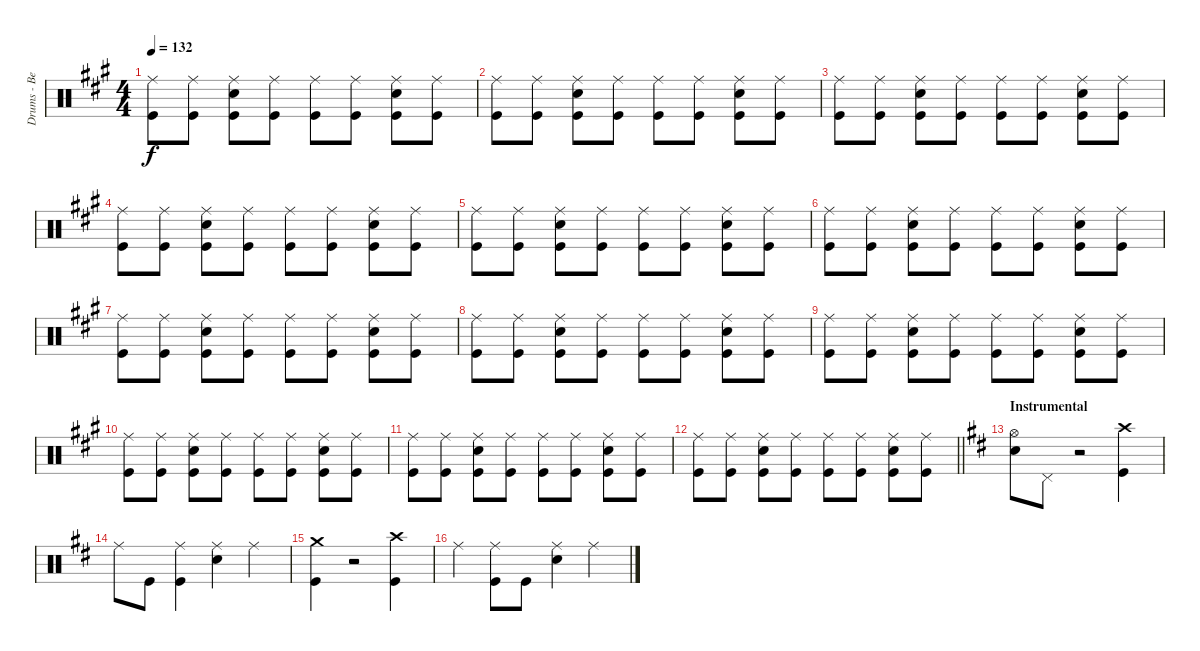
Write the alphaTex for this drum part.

\track ("Drums - Ben Johnston" "Drums - Be") {instrument percussion}
\staff {score}
\articulation defaults
\ts (4 4)
\tempo 132
\clef neutral
\ks a
("Ride (middle)" "Kick (hit)").8{dy f} ("Ride (middle)" "Kick (hit)").8 ("Ride (middle)" "Snare (hit) 2" "Kick (hit)").8 ("Ride (middle)" "Kick (hit)").8 ("Ride (middle)" "Kick (hit)").8 ("Ride (middle)" "Kick (hit)").8 ("Ride (middle)" "Snare (hit) 2" "Kick (hit)").8 ("Ride (middle)" "Kick (hit)").8 |
("Ride (middle)" "Kick (hit)").8 ("Ride (middle)" "Kick (hit)").8 ("Ride (middle)" "Snare (hit) 2" "Kick (hit)").8 ("Ride (middle)" "Kick (hit)").8 ("Ride (middle)" "Kick (hit)").8 ("Ride (middle)" "Kick (hit)").8 ("Ride (middle)" "Snare (hit) 2" "Kick (hit)").8 ("Ride (middle)" "Kick (hit)").8 |
("Ride (middle)" "Kick (hit)").8 ("Ride (middle)" "Kick (hit)").8 ("Ride (middle)" "Snare (hit) 2" "Kick (hit)").8 ("Ride (middle)" "Kick (hit)").8 ("Ride (middle)" "Kick (hit)").8 ("Ride (middle)" "Kick (hit)").8 ("Ride (middle)" "Snare (hit) 2" "Kick (hit)").8 ("Ride (middle)" "Kick (hit)").8 |
("Ride (middle)" "Kick (hit)").8 ("Ride (middle)" "Kick (hit)").8 ("Ride (middle)" "Snare (hit) 2" "Kick (hit)").8 ("Ride (middle)" "Kick (hit)").8 ("Ride (middle)" "Kick (hit)").8 ("Ride (middle)" "Kick (hit)").8 ("Ride (middle)" "Snare (hit) 2" "Kick (hit)").8 ("Ride (middle)" "Kick (hit)").8 |
("Ride (middle)" "Kick (hit)").8{volume 12} ("Ride (middle)" "Kick (hit)").8 ("Ride (middle)" "Snare (hit) 2" "Kick (hit)").8 ("Ride (middle)" "Kick (hit)").8 ("Ride (middle)" "Kick (hit)").8 ("Ride (middle)" "Kick (hit)").8 ("Ride (middle)" "Snare (hit) 2" "Kick (hit)").8 ("Ride (middle)" "Kick (hit)").8 |
("Ride (middle)" "Kick (hit)").8 ("Ride (middle)" "Kick (hit)").8 ("Ride (middle)" "Snare (hit) 2" "Kick (hit)").8 ("Ride (middle)" "Kick (hit)").8 ("Ride (middle)" "Kick (hit)").8 ("Ride (middle)" "Kick (hit)").8 ("Ride (middle)" "Snare (hit) 2" "Kick (hit)").8 ("Ride (middle)" "Kick (hit)").8 |
("Ride (middle)" "Kick (hit)").8 ("Ride (middle)" "Kick (hit)").8 ("Ride (middle)" "Snare (hit) 2" "Kick (hit)").8 ("Ride (middle)" "Kick (hit)").8 ("Ride (middle)" "Kick (hit)").8 ("Ride (middle)" "Kick (hit)").8 ("Ride (middle)" "Snare (hit) 2" "Kick (hit)").8 ("Ride (middle)" "Kick (hit)").8 |
("Ride (middle)" "Kick (hit)").8 ("Ride (middle)" "Kick (hit)").8 ("Ride (middle)" "Snare (hit) 2" "Kick (hit)").8 ("Ride (middle)" "Kick (hit)").8 ("Ride (middle)" "Kick (hit)").8 ("Ride (middle)" "Kick (hit)").8 ("Ride (middle)" "Snare (hit) 2" "Kick (hit)").8 ("Ride (middle)" "Kick (hit)").8 |
("Ride (middle)" "Kick (hit)").8{volume 13} ("Ride (middle)" "Kick (hit)").8 ("Ride (middle)" "Snare (hit) 2" "Kick (hit)").8 ("Ride (middle)" "Kick (hit)").8 ("Ride (middle)" "Kick (hit)").8 ("Ride (middle)" "Kick (hit)").8 ("Ride (middle)" "Snare (hit) 2" "Kick (hit)").8 ("Ride (middle)" "Kick (hit)").8 |
("Ride (middle)" "Kick (hit)").8 ("Ride (middle)" "Kick (hit)").8 ("Ride (middle)" "Snare (hit) 2" "Kick (hit)").8 ("Ride (middle)" "Kick (hit)").8 ("Ride (middle)" "Kick (hit)").8 ("Ride (middle)" "Kick (hit)").8 ("Ride (middle)" "Snare (hit) 2" "Kick (hit)").8 ("Ride (middle)" "Kick (hit)").8 |
("Ride (middle)" "Kick (hit)").8 ("Ride (middle)" "Kick (hit)").8 ("Ride (middle)" "Snare (hit) 2" "Kick (hit)").8 ("Ride (middle)" "Kick (hit)").8 ("Ride (middle)" "Kick (hit)").8 ("Ride (middle)" "Kick (hit)").8 ("Ride (middle)" "Snare (hit) 2" "Kick (hit)").8 ("Ride (middle)" "Kick (hit)").8 |
\barLineRight lightlight
("Ride (middle)" "Kick (hit)").8 ("Ride (middle)" "Kick (hit)").8 ("Ride (middle)" "Snare (hit) 2" "Kick (hit)").8 ("Ride (middle)" "Kick (hit)").8 ("Ride (middle)" "Kick (hit)").8 ("Ride (middle)" "Kick (hit)").8 ("Ride (middle)" "Snare (hit) 2" "Kick (hit)").8 ("Ride (middle)" "Kick (hit)").8 |
\section ("" "Instrumental")
\ks d
("Hi-Hat (open)" "Snare (hit) 2").8{volume 12} "Pedal Hi-Hat (hit)".8 r.2 ("Crash high (hit)" "Kick (hit)").4 |
"Ride (middle)".8 "Kick (hit)".8 ("Ride (middle)" "Kick (hit)").4 ("Ride (middle)" "Snare (hit) 2").4 "Ride (middle)".4 |
("Crash medium (hit)" "Kick (hit)").4 r.2 ("Crash high (hit)" "Kick (hit)").4 |
"Ride (middle)".4 ("Ride (middle)" "Kick (hit)").8 "Kick (hit)".8 ("Ride (middle)" "Snare (hit) 2").4 "Ride (middle)".4
